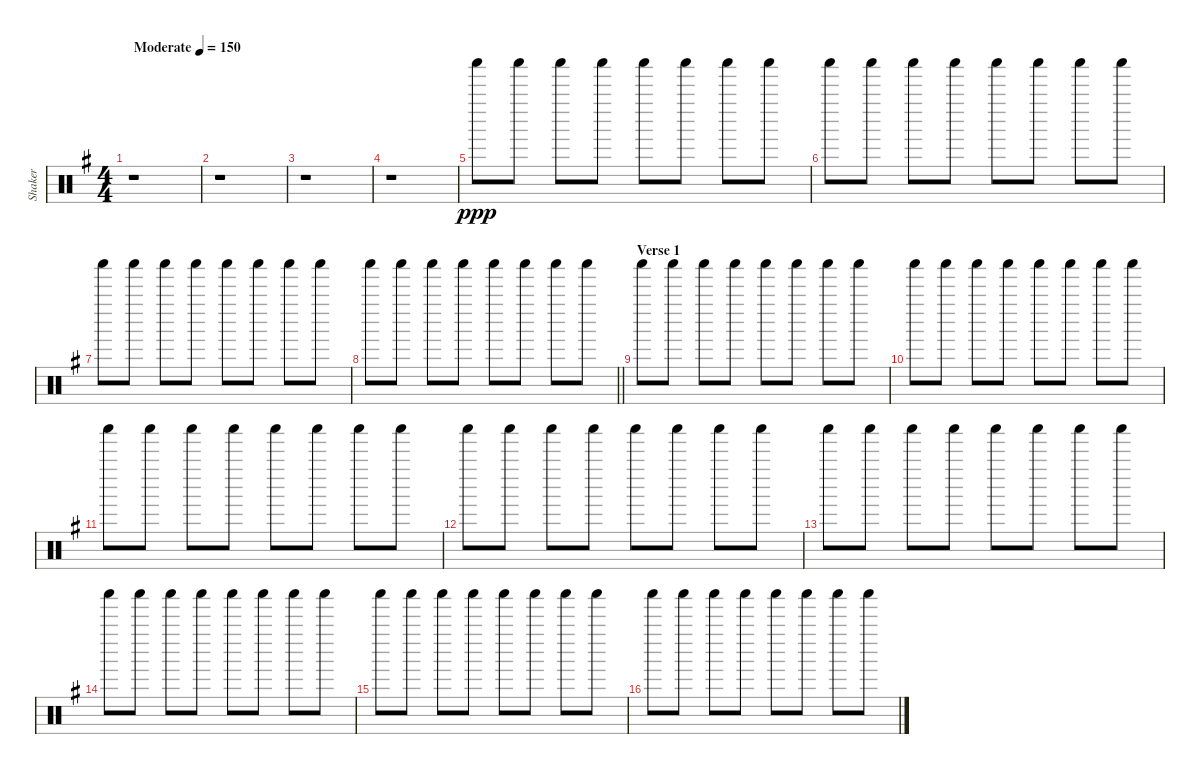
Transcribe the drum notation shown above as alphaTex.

\track ("Shaker" "Shaker") {instrument percussion}
\staff {score}
\articulation defaults
\ts (4 4)
\tempo (150 "Moderate")
\clef neutral
\ks g
r.1{dy ppp} |
r.1 |
r.1 |
r.1 |
"Shaker (hit)".8 "Shaker (hit)".8 "Shaker (hit)".8 "Shaker (hit)".8 "Shaker (hit)".8 "Shaker (hit)".8 "Shaker (hit)".8 "Shaker (hit)".8 |
"Shaker (hit)".8 "Shaker (hit)".8 "Shaker (hit)".8 "Shaker (hit)".8 "Shaker (hit)".8 "Shaker (hit)".8 "Shaker (hit)".8 "Shaker (hit)".8 |
"Shaker (hit)".8 "Shaker (hit)".8 "Shaker (hit)".8 "Shaker (hit)".8 "Shaker (hit)".8 "Shaker (hit)".8 "Shaker (hit)".8 "Shaker (hit)".8 |
\barLineRight lightlight "Shaker (hit)".8 "Shaker (hit)".8 "Shaker (hit)".8 "Shaker (hit)".8 "Shaker (hit)".8 "Shaker (hit)".8 "Shaker (hit)".8 "Shaker (hit)".8
|
\section ("" "Verse 1")
"Shaker (hit)".8 "Shaker (hit)".8 "Shaker (hit)".8 "Shaker (hit)".8 "Shaker (hit)".8 "Shaker (hit)".8 "Shaker (hit)".8 "Shaker (hit)".8 |
"Shaker (hit)".8 "Shaker (hit)".8 "Shaker (hit)".8 "Shaker (hit)".8 "Shaker (hit)".8 "Shaker (hit)".8 "Shaker (hit)".8 "Shaker (hit)".8 |
"Shaker (hit)".8 "Shaker (hit)".8 "Shaker (hit)".8 "Shaker (hit)".8 "Shaker (hit)".8 "Shaker (hit)".8 "Shaker (hit)".8 "Shaker (hit)".8 |
"Shaker (hit)".8 "Shaker (hit)".8 "Shaker (hit)".8 "Shaker (hit)".8 "Shaker (hit)".8 "Shaker (hit)".8 "Shaker (hit)".8 "Shaker (hit)".8 |
"Shaker (hit)".8 "Shaker (hit)".8 "Shaker (hit)".8 "Shaker (hit)".8 "Shaker (hit)".8 "Shaker (hit)".8 "Shaker (hit)".8 "Shaker (hit)".8 |
"Shaker (hit)".8 "Shaker (hit)".8 "Shaker (hit)".8 "Shaker (hit)".8 "Shaker (hit)".8 "Shaker (hit)".8 "Shaker (hit)".8 "Shaker (hit)".8 |
"Shaker (hit)".8 "Shaker (hit)".8 "Shaker (hit)".8 "Shaker (hit)".8 "Shaker (hit)".8 "Shaker (hit)".8 "Shaker (hit)".8 "Shaker (hit)".8 |
"Shaker (hit)".8 "Shaker (hit)".8 "Shaker (hit)".8 "Shaker (hit)".8 "Shaker (hit)".8 "Shaker (hit)".8 "Shaker (hit)".8 "Shaker (hit)".8
